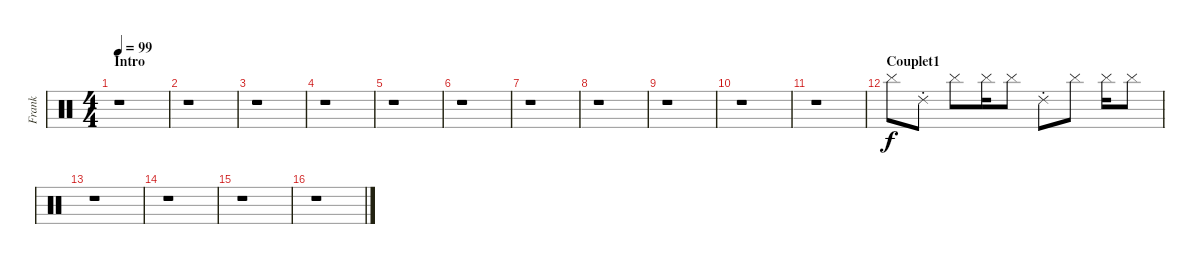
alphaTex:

\track ("Frank" "Frank") {instrument percussion}
\staff {score}
\articulation defaults
\ts (4 4)
\section ("" "Intro")
\tempo 99
\clef neutral
\ks c
r.1{dy f} |
r.1 |
r.1 |
r.1 |
r.1 |
r.1 |
r.1 |
r.1 |
r.1 |
r.1 |
r.1 |
\section ("" "Couplet1")
"Cymbal (hit)".8 "Ride (choke) 2".8 "Cymbal (hit)".8 "Cymbal (hit)".16 "Cymbal (hit)".8 "Ride (choke) 2".8 "Cymbal (hit)".8 "Cymbal (hit)".16 "Cymbal (hit)".8 |
r.1 |
r.1 |
r.1 |
r.1
